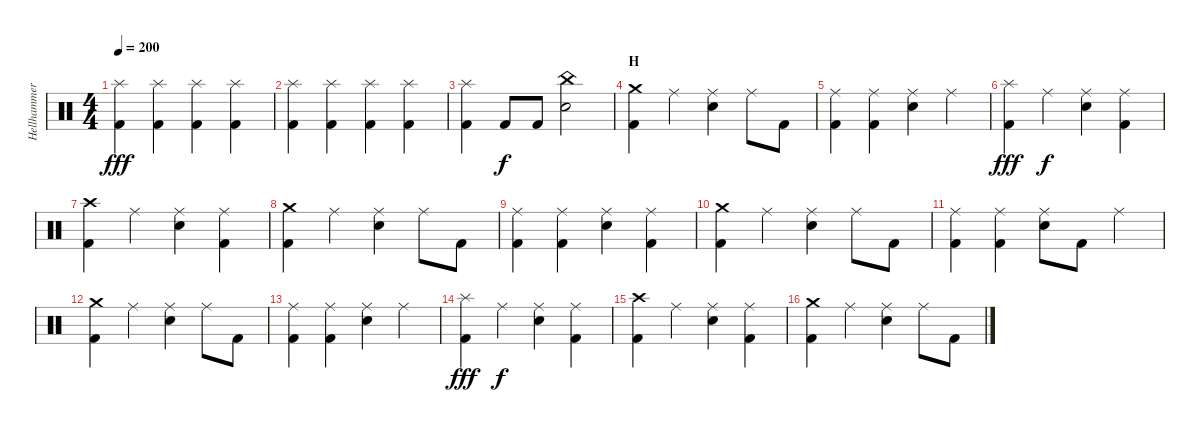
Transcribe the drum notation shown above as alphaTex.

\track ("Hellhammer" "Hellhammer") {instrument percussion}
\staff {score}
\articulation defaults
\ts (4 4)
\tempo 200
\clef neutral
\ks c
("Kick (hit) 2" "Splash (hit)").4{dy fff} ("Kick (hit) 2" "Splash (hit)").4 ("Kick (hit) 2" "Splash (hit)").4 ("Kick (hit) 2" "Splash (hit)").4 |
("Kick (hit) 2" "Splash (hit)").4 ("Kick (hit) 2" "Splash (hit)").4 ("Kick (hit) 2" "Splash (hit)").4 ("Kick (hit) 2" "Splash (hit)").4 |
("Kick (hit) 2" "Splash (hit)").4 "Kick (hit) 2".8{dy f} "Kick (hit) 2".8 ("Electric Snare (hit)" "China (hit)").2 |
\section ("" "H")
("Kick (hit) 2" "Crash medium (hit)").4 "Ride (middle)".4 ("Electric Snare (hit)" "Ride (middle)").4 "Ride (middle)".8 "Kick (hit) 2".8 |
("Kick (hit) 2" "Ride (middle)").4 ("Kick (hit) 2" "Ride (middle)").4 ("Electric Snare (hit)" "Ride (middle)").4 "Ride (middle)".4 |
("Kick (hit) 2" "Splash (hit)").4{dy fff} "Ride (middle)".4{dy f} ("Electric Snare (hit)" "Ride (middle)").4 ("Kick (hit) 2" "Ride (middle)").4 |
("Kick (hit) 2" "Crash high (hit)").4 "Ride (middle)".4 ("Electric Snare (hit)" "Ride (middle)").4 ("Kick (hit) 2" "Ride (middle)").4 |
("Kick (hit) 2" "Crash medium (hit)").4 "Ride (middle)".4 ("Electric Snare (hit)" "Ride (middle)").4 "Ride (middle)".8 "Kick (hit) 2".8 |
("Kick (hit) 2" "Ride (middle)").4 ("Kick (hit) 2" "Ride (middle)").4 ("Electric Snare (hit)" "Ride (middle)").4 ("Kick (hit) 2" "Ride (middle)").4 |
("Kick (hit) 2" "Crash medium (hit)").4 "Ride (middle)".4 ("Electric Snare (hit)" "Ride (middle)").4 "Ride (middle)".8 "Kick (hit) 2".8 |
("Kick (hit) 2" "Ride (middle)").4 ("Kick (hit) 2" "Ride (middle)").4 ("Electric Snare (hit)" "Ride (middle)").8 "Kick (hit) 2".8 "Ride (middle)".4 |
("Kick (hit) 2" "Crash medium (hit)").4 "Ride (middle)".4 ("Electric Snare (hit)" "Ride (middle)").4 "Ride (middle)".8 "Kick (hit) 2".8 |
("Kick (hit) 2" "Ride (middle)").4 ("Kick (hit) 2" "Ride (middle)").4 ("Electric Snare (hit)" "Ride (middle)").4 "Ride (middle)".4 |
("Kick (hit) 2" "Splash (hit)").4{dy fff} "Ride (middle)".4{dy f} ("Electric Snare (hit)" "Ride (middle)").4 ("Kick (hit) 2" "Ride (middle)").4 |
("Kick (hit) 2" "Crash high (hit)").4 "Ride (middle)".4 ("Electric Snare (hit)" "Ride (middle)").4 ("Kick (hit) 2" "Ride (middle)").4 |
("Kick (hit) 2" "Crash medium (hit)").4 "Ride (middle)".4 ("Electric Snare (hit)" "Ride (middle)").4 "Ride (middle)".8 "Kick (hit) 2".8
